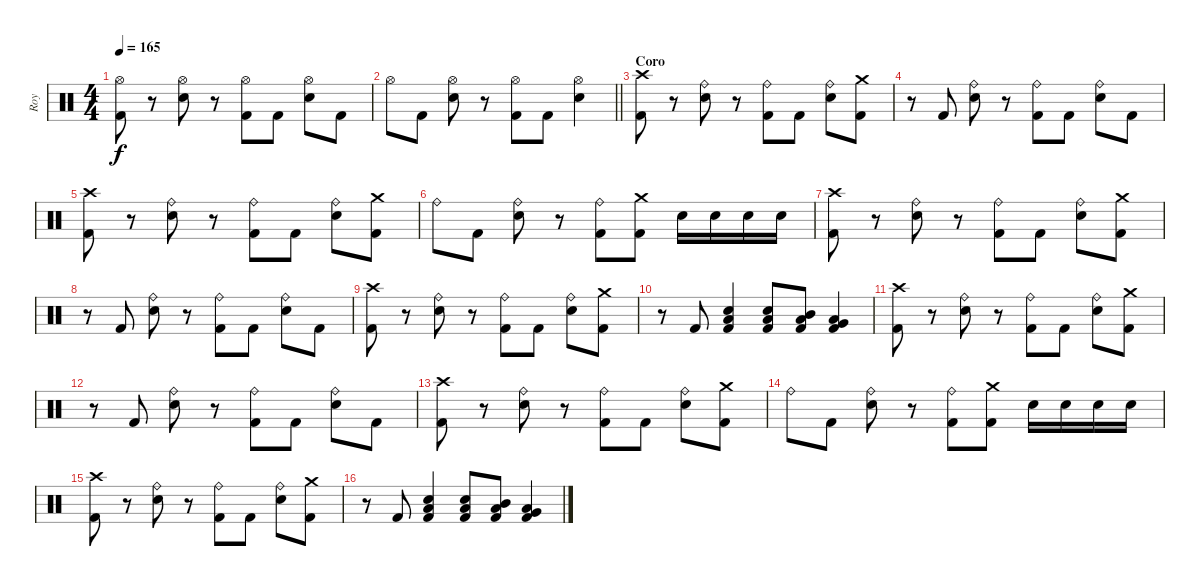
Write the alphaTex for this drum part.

\track ("Roy" "Roy") {instrument percussion}
\staff {score}
\articulation defaults
\ts (4 4)
\tempo 165
\clef neutral
\ks c
("Hi-Hat (open)" "Kick (hit) 2").8{dy f} r.8 ("Hi-Hat (open)" "Electric Snare (hit)").8 r.8 ("Hi-Hat (open)" "Kick (hit) 2").8 "Kick (hit) 2".8 ("Hi-Hat (open)" "Electric Snare (hit)").8 "Kick (hit) 2".8 |
\barLineRight lightlight "Hi-Hat (open)".8 "Kick (hit) 2".8
("Hi-Hat (open)" "Electric Snare (hit)").8 r.8 ("Hi-Hat (open)" "Kick (hit) 2").8 "Kick (hit) 2".8 ("Hi-Hat (open)" "Electric Snare (hit)").4 |
\section ("" "Coro")
("Crash high (hit)" "Kick (hit) 2").8 r.8 ("Ride (bell)" "Electric Snare (hit)").8 r.8 ("Ride (bell)" "Kick (hit) 2").8 "Kick (hit) 2".8 ("Ride (bell)" "Electric Snare (hit)").8 ("Crash medium (hit)" "Kick (hit) 2").8 |
r.8 "Kick (hit) 2".8 ("Ride (bell)" "Electric Snare (hit)").8 r.8 ("Ride (bell)" "Kick (hit) 2").8 "Kick (hit) 2".8 ("Ride (bell)" "Electric Snare (hit)").8 "Kick (hit) 2".8 |
("Crash high (hit)" "Kick (hit) 2").8 r.8 ("Ride (bell)" "Electric Snare (hit)").8 r.8 ("Ride (bell)" "Kick (hit) 2").8 "Kick (hit) 2".8 ("Ride (bell)" "Electric Snare (hit)").8 ("Crash medium (hit)" "Kick (hit) 2").8 |
"Ride (bell)".8 "Kick (hit) 2".8 ("Ride (bell)" "Electric Snare (hit)").8 r.8 ("Ride (bell)" "Kick (hit) 2").8 ("Crash medium (hit)" "Kick (hit) 2").8 "Electric Snare (hit)".16 "Electric Snare (hit)".16 "Electric Snare (hit)".16 "Electric Snare (hit)".16 |
("Crash high (hit)" "Kick (hit) 2").8 r.8 ("Ride (bell)" "Electric Snare (hit)").8 r.8 ("Ride (bell)" "Kick (hit) 2").8 "Kick (hit) 2".8 ("Ride (bell)" "Electric Snare (hit)").8 ("Crash medium (hit)" "Kick (hit) 2").8 |
r.8 "Kick (hit) 2".8 ("Ride (bell)" "Electric Snare (hit)").8 r.8 ("Ride (bell)" "Kick (hit) 2").8 "Kick (hit) 2".8 ("Ride (bell)" "Electric Snare (hit)").8 "Kick (hit) 2".8 |
("Crash high (hit)" "Kick (hit) 2").8 r.8 ("Ride (bell)" "Electric Snare (hit)").8 r.8 ("Ride (bell)" "Kick (hit) 2").8 "Kick (hit) 2".8 ("Ride (bell)" "Electric Snare (hit)").8 ("Crash medium (hit)" "Kick (hit) 2").8 |
r.8 "Kick (hit) 2".8 ("Electric Snare (hit)" "Low Tom (hit)" "Kick (hit) 2").4 ("Electric Snare (hit)" "Low Tom (hit)" "Kick (hit) 2").8 ("Mid Tom (hit)" "Low Tom (hit)" "Kick (hit) 2").8 ("Very Low Tom (hit)" "Low Tom (hit)" "Kick (hit) 2").4 |
("Crash high (hit)" "Kick (hit) 2").8 r.8 ("Ride (bell)" "Electric Snare (hit)").8 r.8 ("Ride (bell)" "Kick (hit) 2").8 "Kick (hit) 2".8 ("Ride (bell)" "Electric Snare (hit)").8 ("Crash medium (hit)" "Kick (hit) 2").8 |
r.8 "Kick (hit) 2".8 ("Ride (bell)" "Electric Snare (hit)").8 r.8 ("Ride (bell)" "Kick (hit) 2").8 "Kick (hit) 2".8 ("Ride (bell)" "Electric Snare (hit)").8 "Kick (hit) 2".8 |
("Crash high (hit)" "Kick (hit) 2").8 r.8 ("Ride (bell)" "Electric Snare (hit)").8 r.8 ("Ride (bell)" "Kick (hit) 2").8 "Kick (hit) 2".8 ("Ride (bell)" "Electric Snare (hit)").8 ("Crash medium (hit)" "Kick (hit) 2").8 |
"Ride (bell)".8 "Kick (hit) 2".8 ("Ride (bell)" "Electric Snare (hit)").8 r.8 ("Ride (bell)" "Kick (hit) 2").8 ("Crash medium (hit)" "Kick (hit) 2").8 "Electric Snare (hit)".16 "Electric Snare (hit)".16 "Electric Snare (hit)".16 "Electric Snare (hit)".16 |
("Crash high (hit)" "Kick (hit) 2").8 r.8 ("Ride (bell)" "Electric Snare (hit)").8 r.8 ("Ride (bell)" "Kick (hit) 2").8 "Kick (hit) 2".8 ("Ride (bell)" "Electric Snare (hit)").8 ("Crash medium (hit)" "Kick (hit) 2").8 |
r.8 "Kick (hit) 2".8 ("Electric Snare (hit)" "Low Tom (hit)" "Kick (hit) 2").4 ("Electric Snare (hit)" "Low Tom (hit)" "Kick (hit) 2").8 ("Mid Tom (hit)" "Low Tom (hit)" "Kick (hit) 2").8 ("Very Low Tom (hit)" "Low Tom (hit)" "Kick (hit) 2").4
